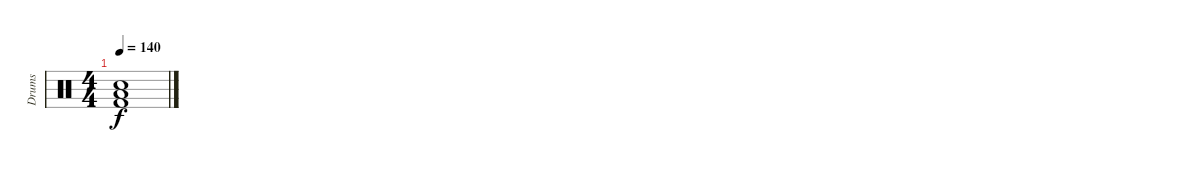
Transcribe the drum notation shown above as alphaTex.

\track ("Drums" "Drums") {instrument percussion}
\staff {score}
\articulation defaults
\ts (4 4)
\tempo 140
\clef neutral
\ks c
("Low Tom (hit)" "Electric Snare (hit)" "Kick (hit) 2").1{dy f}
